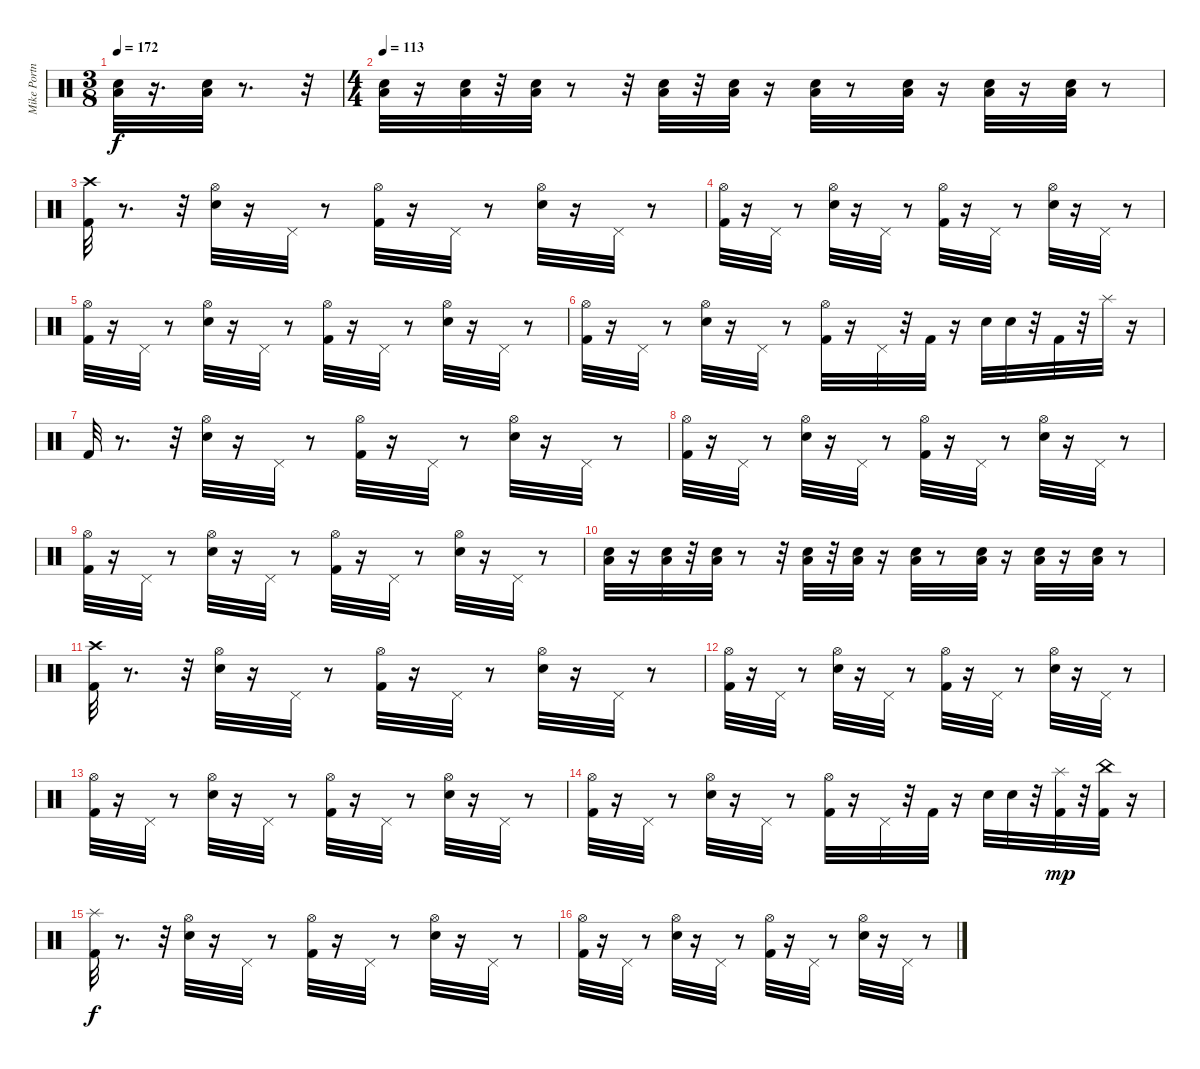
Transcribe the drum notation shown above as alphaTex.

\track ("Mike Portnoy" "Mike Portn") {instrument percussion}
\staff {score}
\articulation defaults
\ts (3 8)
\tempo 172
\clef neutral
\ks c
("Low Floor Tom (hit)" "Snare (hit) 2").32{dy f} r.16{d} ("Low Floor Tom (hit)" "Snare (hit) 2").32 r.8{d} r.32 |
\ts (4 4)
\tempo 113
("Low Floor Tom (hit)" "Snare (hit) 2").32 r.16 ("Low Floor Tom (hit)" "Snare (hit) 2").32 r.32 ("Low Floor Tom (hit)" "Snare (hit) 2").32 r.8 r.32 ("Low Floor Tom (hit)" "Snare (hit) 2").32 r.32 ("Low Floor Tom (hit)" "Snare (hit) 2").32 r.16 ("Low Floor Tom (hit)" "Snare (hit) 2").32 r.8 ("Snare (hit) 2" "Low Floor Tom (hit)").32 r.16 ("Snare (hit) 2" "Low Floor Tom (hit)").32 r.16 ("Snare (hit) 2" "Low Floor Tom (hit)").32 r.8 |
("Crash high (hit)" "Kick (hit) 2").32 r.8{d} r.32 ("Hi-Hat (open)" "Snare (hit) 2").32 r.16 "Pedal Hi-Hat (hit)".32 r.8 ("Hi-Hat (open)" "Kick (hit) 2").32 r.16 "Pedal Hi-Hat (hit)".32 r.8 ("Hi-Hat (open)" "Snare (hit) 2").32 r.16 "Pedal Hi-Hat (hit)".32 r.8 |
("Hi-Hat (open)" "Kick (hit) 2").32 r.16 "Pedal Hi-Hat (hit)".32 r.8 ("Hi-Hat (open)" "Snare (hit) 2").32 r.16 "Pedal Hi-Hat (hit)".32 r.8 ("Hi-Hat (open)" "Kick (hit) 2").32 r.16 "Pedal Hi-Hat (hit)".32 r.8 ("Hi-Hat (open)" "Snare (hit) 2").32 r.16 "Pedal Hi-Hat (hit)".32 r.8 |
("Hi-Hat (open)" "Kick (hit) 2").32 r.16 "Pedal Hi-Hat (hit)".32 r.8 ("Hi-Hat (open)" "Snare (hit) 2").32 r.16 "Pedal Hi-Hat (hit)".32 r.8 ("Hi-Hat (open)" "Kick (hit) 2").32 r.16 "Pedal Hi-Hat (hit)".32 r.8 ("Hi-Hat (open)" "Snare (hit) 2").32 r.16 "Pedal Hi-Hat (hit)".32 r.8 |
("Hi-Hat (open)" "Kick (hit) 2").32 r.16 "Pedal Hi-Hat (hit)".32 r.8 ("Hi-Hat (open)" "Snare (hit) 2").32 r.16 "Pedal Hi-Hat (hit)".32 r.8 ("Hi-Hat (open)" "Kick (hit) 2").32 r.16 "Pedal Hi-Hat (hit)".32 r.32 "Kick (hit) 2".32 r.16 "Snare (hit) 2".32 "Snare (hit) 2".32 r.32 "Kick (hit) 2".32 r.32 "Splash (hit)".32 r.16 |
"Kick (hit) 2".32 r.8{d} r.32 ("Hi-Hat (open)" "Snare (hit) 2").32 r.16 "Pedal Hi-Hat (hit)".32 r.8 ("Hi-Hat (open)" "Kick (hit) 2").32 r.16 "Pedal Hi-Hat (hit)".32 r.8 ("Hi-Hat (open)" "Snare (hit) 2").32 r.16 "Pedal Hi-Hat (hit)".32 r.8 |
("Hi-Hat (open)" "Kick (hit) 2").32 r.16 "Pedal Hi-Hat (hit)".32 r.8 ("Hi-Hat (open)" "Snare (hit) 2").32 r.16 "Pedal Hi-Hat (hit)".32 r.8 ("Hi-Hat (open)" "Kick (hit) 2").32 r.16 "Pedal Hi-Hat (hit)".32 r.8 ("Hi-Hat (open)" "Snare (hit) 2").32 r.16 "Pedal Hi-Hat (hit)".32 r.8 |
("Hi-Hat (open)" "Kick (hit) 2").32 r.16 "Pedal Hi-Hat (hit)".32 r.8 ("Hi-Hat (open)" "Snare (hit) 2").32 r.16 "Pedal Hi-Hat (hit)".32 r.8 ("Hi-Hat (open)" "Kick (hit) 2").32 r.16 "Pedal Hi-Hat (hit)".32 r.8 ("Hi-Hat (open)" "Snare (hit) 2").32 r.16 "Pedal Hi-Hat (hit)".32 r.8 |
("Low Floor Tom (hit)" "Snare (hit) 2").32 r.16 ("Low Floor Tom (hit)" "Snare (hit) 2").32 r.32 ("Low Floor Tom (hit)" "Snare (hit) 2").32 r.8 r.32 ("Low Floor Tom (hit)" "Snare (hit) 2").32 r.32 ("Snare (hit) 2" "Low Floor Tom (hit)").32 r.16 ("Low Floor Tom (hit)" "Snare (hit) 2").32 r.8 ("Low Floor Tom (hit)" "Snare (hit) 2").32 r.16 ("Low Floor Tom (hit)" "Snare (hit) 2").32 r.16 ("Low Floor Tom (hit)" "Snare (hit) 2").32 r.8 |
("Crash high (hit)" "Kick (hit) 2").32 r.8{d} r.32 ("Hi-Hat (open)" "Snare (hit) 2").32 r.16 "Pedal Hi-Hat (hit)".32 r.8 ("Hi-Hat (open)" "Kick (hit) 2").32 r.16 "Pedal Hi-Hat (hit)".32 r.8 ("Hi-Hat (open)" "Snare (hit) 2").32 r.16 "Pedal Hi-Hat (hit)".32 r.8 |
("Hi-Hat (open)" "Kick (hit) 2").32 r.16 "Pedal Hi-Hat (hit)".32 r.8 ("Hi-Hat (open)" "Snare (hit) 2").32 r.16 "Pedal Hi-Hat (hit)".32 r.8 ("Hi-Hat (open)" "Kick (hit) 2").32 r.16 "Pedal Hi-Hat (hit)".32 r.8 ("Hi-Hat (open)" "Snare (hit) 2").32 r.16 "Pedal Hi-Hat (hit)".32 r.8 |
("Hi-Hat (open)" "Kick (hit) 2").32 r.16 "Pedal Hi-Hat (hit)".32 r.8 ("Hi-Hat (open)" "Snare (hit) 2").32 r.16 "Pedal Hi-Hat (hit)".32 r.8 ("Hi-Hat (open)" "Kick (hit) 2").32 r.16 "Pedal Hi-Hat (hit)".32 r.8 ("Hi-Hat (open)" "Snare (hit) 2").32 r.16 "Pedal Hi-Hat (hit)".32 r.8 |
("Hi-Hat (open)" "Kick (hit) 2").32 r.16 "Pedal Hi-Hat (hit)".32 r.8 ("Hi-Hat (open)" "Snare (hit) 2").32 r.16 "Pedal Hi-Hat (hit)".32 r.8 ("Hi-Hat (open)" "Kick (hit) 2").32 r.16 "Pedal Hi-Hat (hit)".32 r.32 "Kick (hit) 2".32 r.16 "Snare (hit) 2".32 "Snare (hit) 2".32 r.32 ("Splash (hit)" "Kick (hit) 2").32{dy mp} r.32 ("China (hit)" "Kick (hit) 2").32 r.16 |
("Splash (hit)" "Kick (hit) 2").32{dy f} r.8{d} r.32 ("Hi-Hat (open)" "Snare (hit) 2").32 r.16 "Pedal Hi-Hat (hit)".32 r.8 ("Hi-Hat (open)" "Kick (hit) 2").32 r.16 "Pedal Hi-Hat (hit)".32 r.8 ("Hi-Hat (open)" "Snare (hit) 2").32 r.16 "Pedal Hi-Hat (hit)".32 r.8 |
("Hi-Hat (open)" "Kick (hit) 2").32 r.16 "Pedal Hi-Hat (hit)".32 r.8 ("Hi-Hat (open)" "Snare (hit) 2").32 r.16 "Pedal Hi-Hat (hit)".32 r.8 ("Hi-Hat (open)" "Kick (hit) 2").32 r.16 "Pedal Hi-Hat (hit)".32 r.8 ("Hi-Hat (open)" "Snare (hit) 2").32 r.16 "Pedal Hi-Hat (hit)".32 r.8
